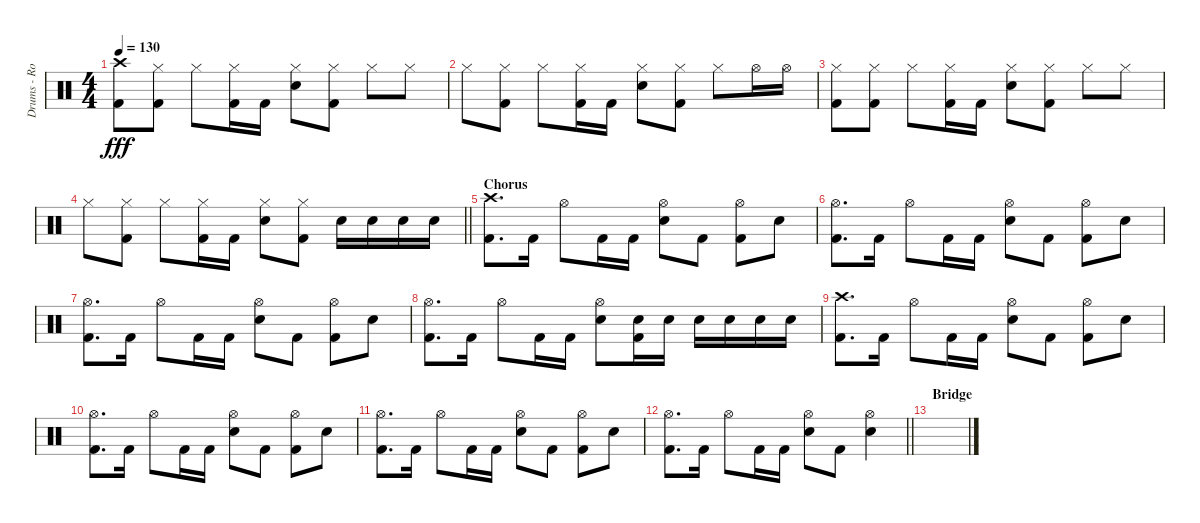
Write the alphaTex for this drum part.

\track ("Drums - Rob Bourdon" "Drums - Ro") {instrument percussion}
\staff {score}
\articulation defaults
\ts (4 4)
\tempo 130
\clef neutral
\ks c
("Crash high (hit)" "Kick (hit) 2").8{dy fff} ("Hi-Hat (closed)" "Kick (hit) 2").8 "Hi-Hat (closed)".8 ("Hi-Hat (closed)" "Kick (hit) 2").16 "Kick (hit) 2".16 ("Hi-Hat (closed)" "Snare (hit) 2").8 ("Hi-Hat (closed)" "Kick (hit) 2").8 "Hi-Hat (closed)".8 "Hi-Hat (closed)".8 |
"Hi-Hat (closed)".8 ("Hi-Hat (closed)" "Kick (hit) 2").8 "Hi-Hat (closed)".8 ("Hi-Hat (closed)" "Kick (hit) 2").16 "Kick (hit) 2".16 ("Hi-Hat (closed)" "Snare (hit) 2").8 ("Hi-Hat (closed)" "Kick (hit) 2").8 "Hi-Hat (closed)".8 "Hi-Hat (open)".16 "Hi-Hat (open)".16 |
("Hi-Hat (closed)" "Kick (hit) 2").8 ("Hi-Hat (closed)" "Kick (hit) 2").8 "Hi-Hat (closed)".8 ("Hi-Hat (closed)" "Kick (hit) 2").16 "Kick (hit) 2".16 ("Hi-Hat (closed)" "Snare (hit) 2").8 ("Hi-Hat (closed)" "Kick (hit) 2").8 "Hi-Hat (closed)".8 "Hi-Hat (closed)".8 |
\barLineRight lightlight "Hi-Hat (closed)".8
("Hi-Hat (closed)" "Kick (hit) 2").8 "Hi-Hat (closed)".8 ("Hi-Hat (closed)" "Kick (hit) 2").16 "Kick (hit) 2".16 ("Hi-Hat (closed)" "Snare (hit) 2").8 ("Hi-Hat (closed)" "Kick (hit) 2").8 "Snare (hit) 2".16 "Snare (hit) 2".16 "Snare (hit) 2".16 "Snare (hit) 2".16 |
\section ("" "Chorus")
("Crash high (hit)" "Kick (hit) 2").8{d} "Kick (hit) 2".16 "Hi-Hat (open)".8 "Kick (hit) 2".16 "Kick (hit) 2".16 ("Hi-Hat (open)" "Snare (hit) 2").8 "Kick (hit) 2".8 ("Hi-Hat (open)" "Kick (hit) 2").8 "Snare (hit) 2".8 |
("Hi-Hat (open)" "Kick (hit) 2").8{d} "Kick (hit) 2".16 "Hi-Hat (open)".8 "Kick (hit) 2".16 "Kick (hit) 2".16 ("Hi-Hat (open)" "Snare (hit) 2").8 "Kick (hit) 2".8 ("Hi-Hat (open)" "Kick (hit) 2").8 "Snare (hit) 2".8 |
("Hi-Hat (open)" "Kick (hit) 2").8{d} "Kick (hit) 2".16 "Hi-Hat (open)".8 "Kick (hit) 2".16 "Kick (hit) 2".16 ("Hi-Hat (open)" "Snare (hit) 2").8 "Kick (hit) 2".8 ("Hi-Hat (open)" "Kick (hit) 2").8 "Snare (hit) 2".8 |
("Hi-Hat (open)" "Kick (hit) 2").8{d} "Kick (hit) 2".16 "Hi-Hat (open)".8 "Kick (hit) 2".16 "Kick (hit) 2".16 ("Hi-Hat (open)" "Snare (hit) 2").8 ("Snare (hit) 2" "Kick (hit) 2").16 "Snare (hit) 2".16 "Snare (hit) 2".16 "Snare (hit) 2".16 "Snare (hit) 2".16 "Snare (hit) 2".16 |
("Crash high (hit)" "Kick (hit) 2").8{d} "Kick (hit) 2".16 "Hi-Hat (open)".8 "Kick (hit) 2".16 "Kick (hit) 2".16 ("Hi-Hat (open)" "Snare (hit) 2").8 "Kick (hit) 2".8 ("Hi-Hat (open)" "Kick (hit) 2").8 "Snare (hit) 2".8 |
("Hi-Hat (open)" "Kick (hit) 2").8{d} "Kick (hit) 2".16 "Hi-Hat (open)".8 "Kick (hit) 2".16 "Kick (hit) 2".16 ("Hi-Hat (open)" "Snare (hit) 2").8 "Kick (hit) 2".8 ("Hi-Hat (open)" "Kick (hit) 2").8 "Snare (hit) 2".8 |
("Hi-Hat (open)" "Kick (hit) 2").8{d} "Kick (hit) 2".16 "Hi-Hat (open)".8 "Kick (hit) 2".16 "Kick (hit) 2".16 ("Hi-Hat (open)" "Snare (hit) 2").8 "Kick (hit) 2".8 ("Hi-Hat (open)" "Kick (hit) 2").8 "Snare (hit) 2".8 |
\barLineRight lightlight
("Hi-Hat (open)" "Kick (hit) 2").8{d} "Kick (hit) 2".16 "Hi-Hat (open)".8 "Kick (hit) 2".16 "Kick (hit) 2".16 ("Hi-Hat (open)" "Snare (hit) 2").8 "Kick (hit) 2".8 ("Hi-Hat (open)" "Snare (hit) 2").4 |
\section ("" "Bridge")
